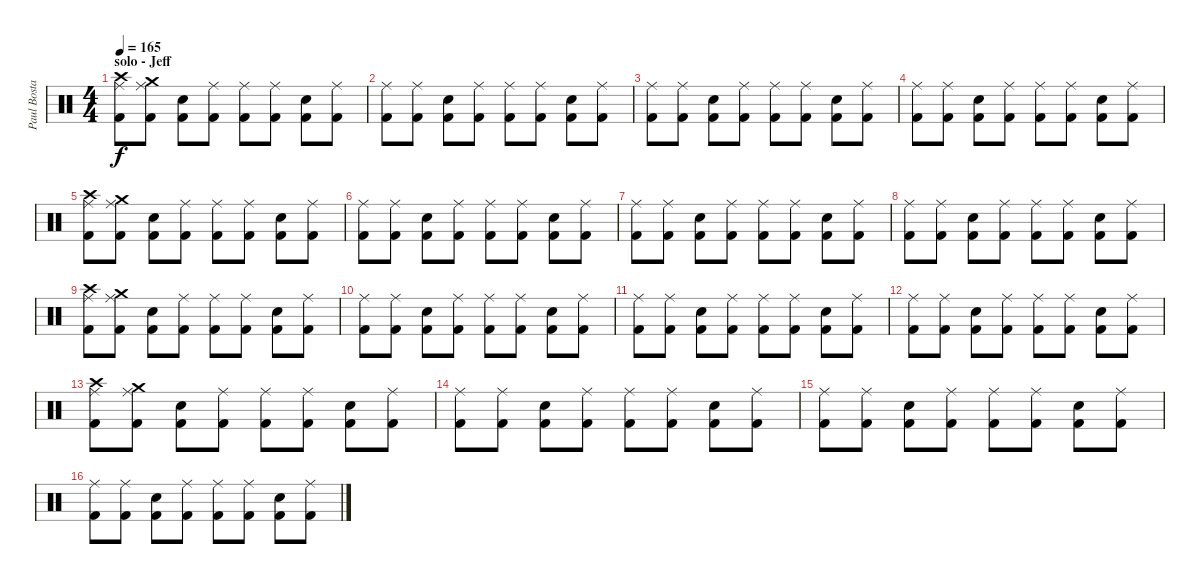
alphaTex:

\track ("Paul Bostaph" "Paul Bosta") {instrument percussion}
\staff {score}
\articulation defaults
\ts (4 4)
\section ("" "solo - Jeff")
\tempo 156
\tempo 165
\clef neutral
\ks c
("Crash high (hit)" "Ride (middle)" "Kick (hit) 2").8{dy f} ("Crash medium (hit)" "Ride (middle)" "Kick (hit) 2").8 ("Snare (hit) 2" "Kick (hit) 2").8 ("Ride (middle)" "Kick (hit) 2").8 ("Ride (middle)" "Kick (hit) 2").8 ("Ride (middle)" "Kick (hit) 2").8 ("Snare (hit) 2" "Kick (hit) 2").8 ("Ride (middle)" "Kick (hit) 2").8 |
("Ride (middle)" "Kick (hit) 2").8 ("Ride (middle)" "Kick (hit) 2").8 ("Snare (hit) 2" "Kick (hit) 2").8 ("Ride (middle)" "Kick (hit) 2").8 ("Ride (middle)" "Kick (hit) 2").8 ("Ride (middle)" "Kick (hit) 2").8 ("Snare (hit) 2" "Kick (hit) 2").8 ("Ride (middle)" "Kick (hit) 2").8 |
("Ride (middle)" "Kick (hit) 2").8 ("Ride (middle)" "Kick (hit) 2").8 ("Snare (hit) 2" "Kick (hit) 2").8 ("Ride (middle)" "Kick (hit) 2").8 ("Ride (middle)" "Kick (hit) 2").8 ("Ride (middle)" "Kick (hit) 2").8 ("Snare (hit) 2" "Kick (hit) 2").8 ("Ride (middle)" "Kick (hit) 2").8 |
("Ride (middle)" "Kick (hit) 2").8 ("Ride (middle)" "Kick (hit) 2").8 ("Snare (hit) 2" "Kick (hit) 2").8 ("Ride (middle)" "Kick (hit) 2").8 ("Ride (middle)" "Kick (hit) 2").8 ("Ride (middle)" "Kick (hit) 2").8 ("Snare (hit) 2" "Kick (hit) 2").8 ("Ride (middle)" "Kick (hit) 2").8 |
("Crash high (hit)" "Ride (middle)" "Kick (hit) 2").8 ("Crash medium (hit)" "Ride (middle)" "Kick (hit) 2").8 ("Snare (hit) 2" "Kick (hit) 2").8 ("Ride (middle)" "Kick (hit) 2").8 ("Ride (middle)" "Kick (hit) 2").8 ("Ride (middle)" "Kick (hit) 2").8 ("Snare (hit) 2" "Kick (hit) 2").8 ("Ride (middle)" "Kick (hit) 2").8 |
("Ride (middle)" "Kick (hit) 2").8 ("Ride (middle)" "Kick (hit) 2").8 ("Snare (hit) 2" "Kick (hit) 2").8 ("Ride (middle)" "Kick (hit) 2").8 ("Ride (middle)" "Kick (hit) 2").8 ("Ride (middle)" "Kick (hit) 2").8 ("Snare (hit) 2" "Kick (hit) 2").8 ("Ride (middle)" "Kick (hit) 2").8 |
("Ride (middle)" "Kick (hit) 2").8 ("Ride (middle)" "Kick (hit) 2").8 ("Snare (hit) 2" "Kick (hit) 2").8 ("Ride (middle)" "Kick (hit) 2").8 ("Ride (middle)" "Kick (hit) 2").8 ("Ride (middle)" "Kick (hit) 2").8 ("Snare (hit) 2" "Kick (hit) 2").8 ("Ride (middle)" "Kick (hit) 2").8 |
("Ride (middle)" "Kick (hit) 2").8 ("Ride (middle)" "Kick (hit) 2").8 ("Snare (hit) 2" "Kick (hit) 2").8 ("Ride (middle)" "Kick (hit) 2").8 ("Ride (middle)" "Kick (hit) 2").8 ("Ride (middle)" "Kick (hit) 2").8 ("Snare (hit) 2" "Kick (hit) 2").8 ("Ride (middle)" "Kick (hit) 2").8 |
("Crash high (hit)" "Ride (middle)" "Kick (hit) 2").8 ("Crash medium (hit)" "Ride (middle)" "Kick (hit) 2").8 ("Snare (hit) 2" "Kick (hit) 2").8 ("Ride (middle)" "Kick (hit) 2").8 ("Ride (middle)" "Kick (hit) 2").8 ("Ride (middle)" "Kick (hit) 2").8 ("Snare (hit) 2" "Kick (hit) 2").8 ("Ride (middle)" "Kick (hit) 2").8 |
("Ride (middle)" "Kick (hit) 2").8 ("Ride (middle)" "Kick (hit) 2").8 ("Snare (hit) 2" "Kick (hit) 2").8 ("Ride (middle)" "Kick (hit) 2").8 ("Ride (middle)" "Kick (hit) 2").8 ("Ride (middle)" "Kick (hit) 2").8 ("Snare (hit) 2" "Kick (hit) 2").8 ("Ride (middle)" "Kick (hit) 2").8 |
("Ride (middle)" "Kick (hit) 2").8 ("Ride (middle)" "Kick (hit) 2").8 ("Snare (hit) 2" "Kick (hit) 2").8 ("Ride (middle)" "Kick (hit) 2").8 ("Ride (middle)" "Kick (hit) 2").8 ("Ride (middle)" "Kick (hit) 2").8 ("Snare (hit) 2" "Kick (hit) 2").8 ("Ride (middle)" "Kick (hit) 2").8 |
("Ride (middle)" "Kick (hit) 2").8 ("Ride (middle)" "Kick (hit) 2").8 ("Snare (hit) 2" "Kick (hit) 2").8 ("Ride (middle)" "Kick (hit) 2").8 ("Ride (middle)" "Kick (hit) 2").8 ("Ride (middle)" "Kick (hit) 2").8 ("Snare (hit) 2" "Kick (hit) 2").8 ("Ride (middle)" "Kick (hit) 2").8 |
("Crash high (hit)" "Ride (middle)" "Kick (hit) 2").8 ("Crash medium (hit)" "Ride (middle)" "Kick (hit) 2").8 ("Snare (hit) 2" "Kick (hit) 2").8 ("Ride (middle)" "Kick (hit) 2").8 ("Ride (middle)" "Kick (hit) 2").8 ("Ride (middle)" "Kick (hit) 2").8 ("Snare (hit) 2" "Kick (hit) 2").8 ("Ride (middle)" "Kick (hit) 2").8 |
("Ride (middle)" "Kick (hit) 2").8 ("Ride (middle)" "Kick (hit) 2").8 ("Snare (hit) 2" "Kick (hit) 2").8 ("Ride (middle)" "Kick (hit) 2").8 ("Ride (middle)" "Kick (hit) 2").8 ("Ride (middle)" "Kick (hit) 2").8 ("Snare (hit) 2" "Kick (hit) 2").8 ("Ride (middle)" "Kick (hit) 2").8 |
("Ride (middle)" "Kick (hit) 2").8 ("Ride (middle)" "Kick (hit) 2").8 ("Snare (hit) 2" "Kick (hit) 2").8 ("Ride (middle)" "Kick (hit) 2").8 ("Ride (middle)" "Kick (hit) 2").8 ("Ride (middle)" "Kick (hit) 2").8 ("Snare (hit) 2" "Kick (hit) 2").8 ("Ride (middle)" "Kick (hit) 2").8 |
("Ride (middle)" "Kick (hit) 2").8 ("Ride (middle)" "Kick (hit) 2").8 ("Snare (hit) 2" "Kick (hit) 2").8 ("Ride (middle)" "Kick (hit) 2").8 ("Ride (middle)" "Kick (hit) 2").8 ("Ride (middle)" "Kick (hit) 2").8 ("Snare (hit) 2" "Kick (hit) 2").8 ("Ride (middle)" "Kick (hit) 2").8
